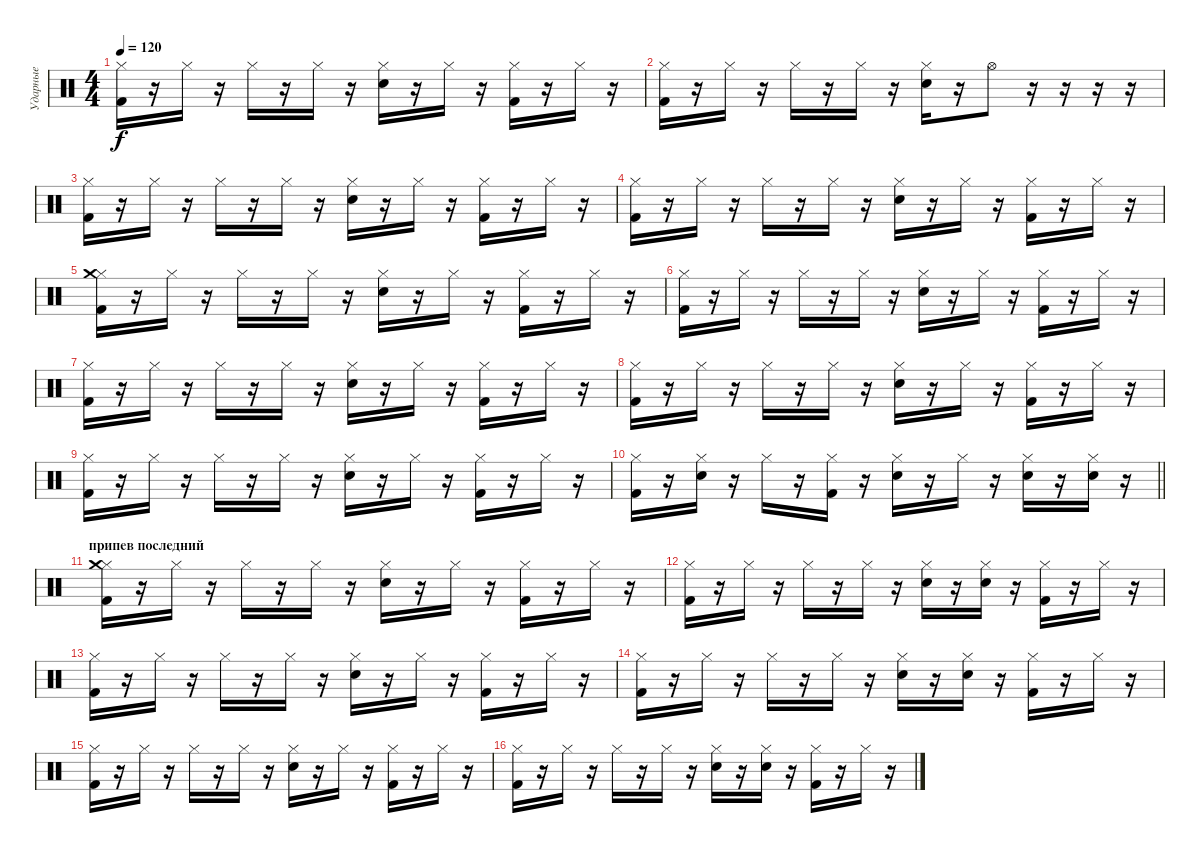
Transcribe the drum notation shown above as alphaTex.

\track ("Ударные" "Ударные") {instrument percussion}
\staff {score}
\articulation defaults
\ts (4 4)
\tempo 120
\clef neutral
\ks c
("Hi-Hat (closed)" "Kick (hit) 2").16{dy f} r.16 "Hi-Hat (closed)".16 r.16 "Hi-Hat (closed)".16 r.16 "Hi-Hat (closed)".16 r.16 ("Hi-Hat (closed)" "Snare (hit) 2").16 r.16 "Hi-Hat (closed)".16 r.16 ("Hi-Hat (closed)" "Kick (hit) 2").16 r.16 "Hi-Hat (closed)".16 r.16 |
("Hi-Hat (closed)" "Kick (hit) 2").16 r.16 "Hi-Hat (closed)".16 r.16 "Hi-Hat (closed)".16 r.16 "Hi-Hat (closed)".16 r.16 ("Hi-Hat (closed)" "Snare (hit) 2").16 r.16 "Hi-Hat (open)".8 r.16 r.16 r.16 r.16 |
("Hi-Hat (closed)" "Kick (hit) 2").16 r.16 "Hi-Hat (closed)".16 r.16 "Hi-Hat (closed)".16 r.16 "Hi-Hat (closed)".16 r.16 ("Hi-Hat (closed)" "Snare (hit) 2").16 r.16 "Hi-Hat (closed)".16 r.16 ("Hi-Hat (closed)" "Kick (hit) 2").16 r.16 "Hi-Hat (closed)".16 r.16 |
("Hi-Hat (closed)" "Kick (hit) 2").16 r.16 "Hi-Hat (closed)".16 r.16 "Hi-Hat (closed)".16 r.16 "Hi-Hat (closed)".16 r.16 ("Hi-Hat (closed)" "Snare (hit) 2").16 r.16 "Hi-Hat (closed)".16 r.16 ("Hi-Hat (closed)" "Kick (hit) 2").16 r.16 "Hi-Hat (closed)".16 r.16 |
("Hi-Hat (closed)" "Kick (hit) 2" "Crash medium (hit)").16 r.16 "Hi-Hat (closed)".16 r.16 "Hi-Hat (closed)".16 r.16 "Hi-Hat (closed)".16 r.16 ("Hi-Hat (closed)" "Snare (hit) 2").16 r.16 "Hi-Hat (closed)".16 r.16 ("Hi-Hat (closed)" "Kick (hit) 2").16 r.16 "Hi-Hat (closed)".16 r.16 |
("Hi-Hat (closed)" "Kick (hit) 2").16 r.16 "Hi-Hat (closed)".16 r.16 "Hi-Hat (closed)".16 r.16 "Hi-Hat (closed)".16 r.16 ("Hi-Hat (closed)" "Snare (hit) 2").16 r.16 "Hi-Hat (closed)".16 r.16 ("Hi-Hat (closed)" "Kick (hit) 2").16 r.16 "Hi-Hat (closed)".16 r.16 |
("Hi-Hat (closed)" "Kick (hit) 2").16 r.16 "Hi-Hat (closed)".16 r.16 "Hi-Hat (closed)".16 r.16 "Hi-Hat (closed)".16 r.16 ("Hi-Hat (closed)" "Snare (hit) 2").16 r.16 "Hi-Hat (closed)".16 r.16 ("Hi-Hat (closed)" "Kick (hit) 2").16 r.16 "Hi-Hat (closed)".16 r.16 |
("Hi-Hat (closed)" "Kick (hit) 2").16 r.16 "Hi-Hat (closed)".16 r.16 "Hi-Hat (closed)".16 r.16 "Hi-Hat (closed)".16 r.16 ("Hi-Hat (closed)" "Snare (hit) 2").16 r.16 "Hi-Hat (closed)".16 r.16 ("Hi-Hat (closed)" "Kick (hit) 2").16 r.16 "Hi-Hat (closed)".16 r.16 |
("Hi-Hat (closed)" "Kick (hit) 2").16 r.16 "Hi-Hat (closed)".16 r.16 "Hi-Hat (closed)".16 r.16 "Hi-Hat (closed)".16 r.16 ("Hi-Hat (closed)" "Snare (hit) 2").16 r.16 "Hi-Hat (closed)".16 r.16 ("Hi-Hat (closed)" "Kick (hit) 2").16 r.16 "Hi-Hat (closed)".16 r.16 |
\barLineRight lightlight
("Hi-Hat (closed)" "Kick (hit) 2").16 r.16 ("Hi-Hat (closed)" "Snare (hit) 2").16 r.16 "Hi-Hat (closed)".16 r.16 ("Hi-Hat (closed)" "Kick (hit) 2").16 r.16 ("Hi-Hat (closed)" "Snare (hit) 2").16 r.16 "Hi-Hat (closed)".16 r.16 ("Hi-Hat (closed)" "Snare (hit) 2").16 r.16 ("Hi-Hat (closed)" "Snare (hit) 2").16 r.16 |
\section ("" "припев последний")
("Hi-Hat (closed)" "Kick (hit) 2" "Crash medium (hit)").16 r.16 "Hi-Hat (closed)".16 r.16 "Hi-Hat (closed)".16 r.16 "Hi-Hat (closed)".16 r.16 ("Hi-Hat (closed)" "Snare (hit) 2").16 r.16 "Hi-Hat (closed)".16 r.16 ("Hi-Hat (closed)" "Kick (hit) 2").16 r.16 "Hi-Hat (closed)".16 r.16 |
("Hi-Hat (closed)" "Kick (hit) 2").16 r.16 "Hi-Hat (closed)".16 r.16 "Hi-Hat (closed)".16 r.16 "Hi-Hat (closed)".16 r.16 ("Hi-Hat (closed)" "Snare (hit) 2").16 r.16 ("Hi-Hat (closed)" "Snare (hit) 2").16 r.16 ("Hi-Hat (closed)" "Kick (hit) 2").16 r.16 "Hi-Hat (closed)".16 r.16 |
("Hi-Hat (closed)" "Kick (hit) 2").16 r.16 "Hi-Hat (closed)".16 r.16 "Hi-Hat (closed)".16 r.16 "Hi-Hat (closed)".16 r.16 ("Hi-Hat (closed)" "Snare (hit) 2").16 r.16 "Hi-Hat (closed)".16 r.16 ("Hi-Hat (closed)" "Kick (hit) 2").16 r.16 "Hi-Hat (closed)".16 r.16 |
("Hi-Hat (closed)" "Kick (hit) 2").16 r.16 "Hi-Hat (closed)".16 r.16 "Hi-Hat (closed)".16 r.16 "Hi-Hat (closed)".16 r.16 ("Hi-Hat (closed)" "Snare (hit) 2").16 r.16 ("Hi-Hat (closed)" "Snare (hit) 2").16 r.16 ("Hi-Hat (closed)" "Kick (hit) 2").16 r.16 "Hi-Hat (closed)".16 r.16 |
("Hi-Hat (closed)" "Kick (hit) 2").16 r.16 "Hi-Hat (closed)".16 r.16 "Hi-Hat (closed)".16 r.16 "Hi-Hat (closed)".16 r.16 ("Hi-Hat (closed)" "Snare (hit) 2").16 r.16 "Hi-Hat (closed)".16 r.16 ("Hi-Hat (closed)" "Kick (hit) 2").16 r.16 "Hi-Hat (closed)".16 r.16 |
("Hi-Hat (closed)" "Kick (hit) 2").16 r.16 "Hi-Hat (closed)".16 r.16 "Hi-Hat (closed)".16 r.16 "Hi-Hat (closed)".16 r.16 ("Hi-Hat (closed)" "Snare (hit) 2").16 r.16 ("Hi-Hat (closed)" "Snare (hit) 2").16 r.16 ("Hi-Hat (closed)" "Kick (hit) 2").16 r.16 "Hi-Hat (closed)".16 r.16
